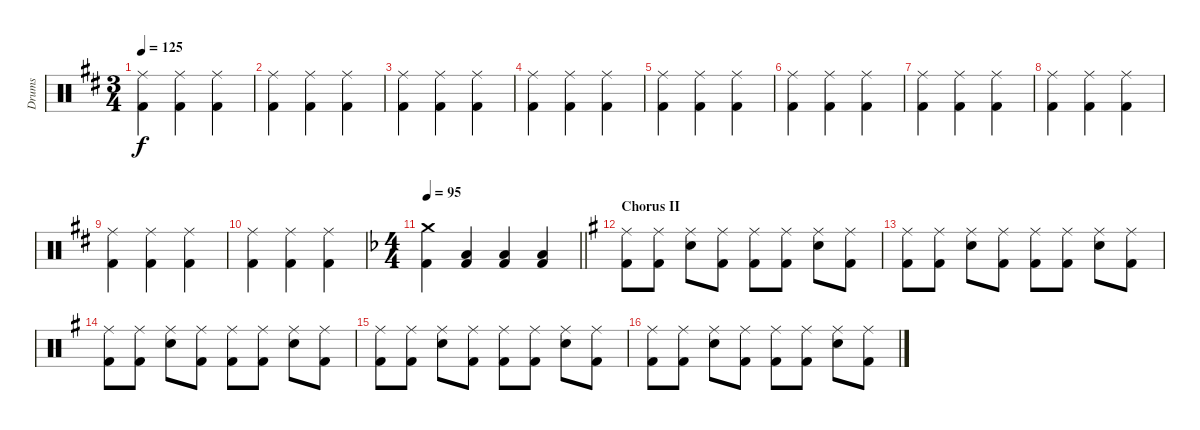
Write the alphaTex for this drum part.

\track ("Drums" "Drums") {instrument percussion}
\staff {score}
\articulation defaults
\ts (3 4)
\tempo 125
\clef neutral
\ks d
("Ride (middle)" "Kick (hit) 2").4{dy f} ("Ride (middle)" "Kick (hit) 2").4 ("Ride (middle)" "Kick (hit) 2").4 |
("Ride (middle)" "Kick (hit) 2").4 ("Ride (middle)" "Kick (hit) 2").4 ("Ride (middle)" "Kick (hit) 2").4 |
("Ride (middle)" "Kick (hit) 2").4 ("Ride (middle)" "Kick (hit) 2").4 ("Ride (middle)" "Kick (hit) 2").4 |
("Ride (middle)" "Kick (hit) 2").4 ("Ride (middle)" "Kick (hit) 2").4 ("Ride (middle)" "Kick (hit) 2").4 |
("Ride (middle)" "Kick (hit) 2").4 ("Ride (middle)" "Kick (hit) 2").4 ("Ride (middle)" "Kick (hit) 2").4 |
("Ride (middle)" "Kick (hit) 2").4 ("Ride (middle)" "Kick (hit) 2").4 ("Ride (middle)" "Kick (hit) 2").4 |
("Ride (middle)" "Kick (hit) 2").4 ("Ride (middle)" "Kick (hit) 2").4 ("Ride (middle)" "Kick (hit) 2").4 |
("Ride (middle)" "Kick (hit) 2").4 ("Ride (middle)" "Kick (hit) 2").4 ("Ride (middle)" "Kick (hit) 2").4 |
("Ride (middle)" "Kick (hit) 2").4 ("Ride (middle)" "Kick (hit) 2").4 ("Ride (middle)" "Kick (hit) 2").4 |
("Ride (middle)" "Kick (hit) 2").4 ("Ride (middle)" "Kick (hit) 2").4 ("Ride (middle)" "Kick (hit) 2").4 |
\ts (4 4)
\tempo 95
\barLineRight lightlight
\ks f
("Crash medium (hit)" "Kick (hit) 2").4 ("Low Tom (hit)" "Kick (hit) 2").4 ("Low Tom (hit)" "Kick (hit) 2").4 ("Low Tom (hit)" "Kick (hit) 2").4 |
\section ("" "Chorus II")
\ks g
("Ride (middle)" "Kick (hit) 2").8 ("Ride (middle)" "Kick (hit) 2").8 ("Ride (middle)" "Snare (hit) 2").8 ("Ride (middle)" "Kick (hit) 2").8 ("Ride (middle)" "Kick (hit) 2").8 ("Ride (middle)" "Kick (hit) 2").8 ("Ride (middle)" "Snare (hit) 2").8 ("Ride (middle)" "Kick (hit) 2").8 |
("Ride (middle)" "Kick (hit) 2").8 ("Ride (middle)" "Kick (hit) 2").8 ("Ride (middle)" "Snare (hit) 2").8 ("Ride (middle)" "Kick (hit) 2").8 ("Ride (middle)" "Kick (hit) 2").8 ("Ride (middle)" "Kick (hit) 2").8 ("Ride (middle)" "Snare (hit) 2").8 ("Ride (middle)" "Kick (hit) 2").8 |
("Ride (middle)" "Kick (hit) 2").8 ("Ride (middle)" "Kick (hit) 2").8 ("Ride (middle)" "Snare (hit) 2").8 ("Ride (middle)" "Kick (hit) 2").8 ("Ride (middle)" "Kick (hit) 2").8 ("Ride (middle)" "Kick (hit) 2").8 ("Ride (middle)" "Snare (hit) 2").8 ("Ride (middle)" "Kick (hit) 2").8 |
("Ride (middle)" "Kick (hit) 2").8 ("Ride (middle)" "Kick (hit) 2").8 ("Ride (middle)" "Snare (hit) 2").8 ("Ride (middle)" "Kick (hit) 2").8 ("Ride (middle)" "Kick (hit) 2").8 ("Ride (middle)" "Kick (hit) 2").8 ("Ride (middle)" "Snare (hit) 2").8 ("Ride (middle)" "Kick (hit) 2").8 |
("Ride (middle)" "Kick (hit) 2").8 ("Ride (middle)" "Kick (hit) 2").8 ("Ride (middle)" "Snare (hit) 2").8 ("Ride (middle)" "Kick (hit) 2").8 ("Ride (middle)" "Kick (hit) 2").8 ("Ride (middle)" "Kick (hit) 2").8 ("Ride (middle)" "Snare (hit) 2").8 ("Ride (middle)" "Kick (hit) 2").8
